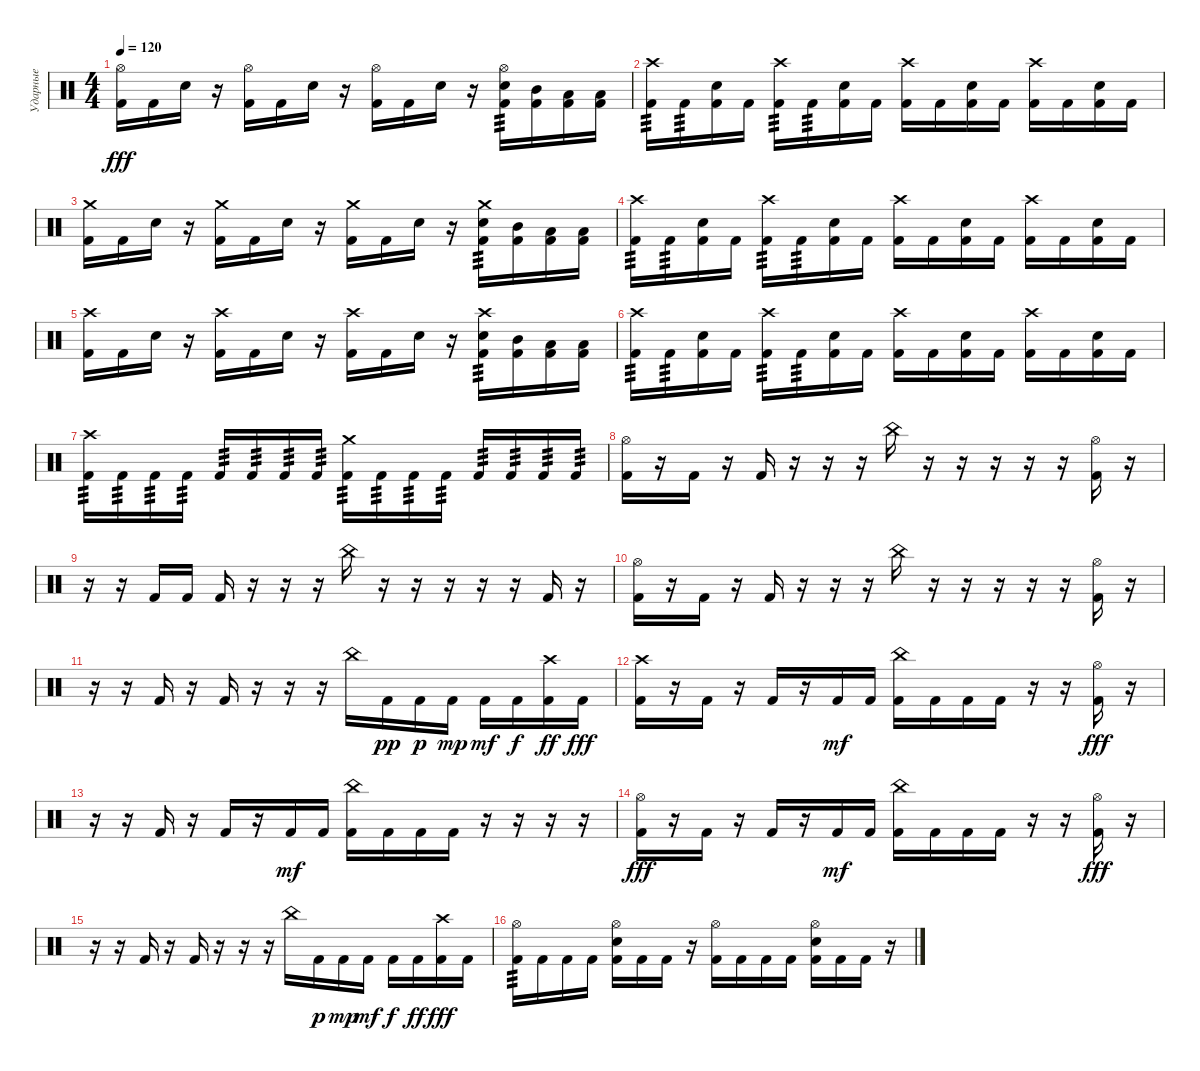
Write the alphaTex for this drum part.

\track ("Ударные" "Ударные") {instrument percussion}
\staff {score}
\articulation defaults
\ts (4 4)
\tempo 120
\clef neutral
\ks c
("Hi-Hat (open)" "Kick (hit) 2").16{dy fff} "Kick (hit) 2".16 "Snare (hit) 2".16 r.16 ("Hi-Hat (open)" "Kick (hit) 2").16 "Kick (hit) 2".16 "Snare (hit) 2".16 r.16 ("Hi-Hat (open)" "Kick (hit) 2").16 "Kick (hit) 2".16 "Snare (hit) 2".16 r.16 ("Hi-Hat (open)" "Snare (hit) 2" "Kick (hit) 2").16{tp 3} ("Mid Tom (hit)" "Kick (hit) 2").16 ("Low Tom (hit)" "Kick (hit) 2").16 ("Low Floor Tom (hit)" "Kick (hit) 2").16 |
("Crash high (hit)" "Kick (hit) 2").16{tp 3} "Kick (hit) 2".16{tp 3} ("Snare (hit) 2" "Kick (hit) 2").16 "Kick (hit) 2".16 ("Crash high (hit)" "Kick (hit) 2").16{tp 3} "Kick (hit) 2".16{tp 3} ("Snare (hit) 2" "Kick (hit) 2").16 "Kick (hit) 2".16 ("Crash high (hit)" "Kick (hit) 2").16 "Kick (hit) 2".16 ("Snare (hit) 2" "Kick (hit) 2").16 "Kick (hit) 2".16 ("Crash high (hit)" "Kick (hit) 2").16 "Kick (hit) 2".16 ("Snare (hit) 2" "Kick (hit) 2").16 "Kick (hit) 2".16 |
("Crash medium (hit)" "Kick (hit) 2").16 "Kick (hit) 2".16 "Snare (hit) 2".16 r.16 ("Crash medium (hit)" "Kick (hit) 2").16 "Kick (hit) 2".16 "Snare (hit) 2".16 r.16 ("Crash medium (hit)" "Kick (hit) 2").16 "Kick (hit) 2".16 "Snare (hit) 2".16 r.16 ("Crash medium (hit)" "Snare (hit) 2" "Kick (hit) 2").16{tp 3} ("Mid Tom (hit)" "Kick (hit) 2").16 ("Low Tom (hit)" "Kick (hit) 2").16 ("Low Floor Tom (hit)" "Kick (hit) 2").16 |
("Crash high (hit)" "Kick (hit) 2").16{tp 3} "Kick (hit) 2".16{tp 3} ("Snare (hit) 2" "Kick (hit) 2").16 "Kick (hit) 2".16 ("Crash high (hit)" "Kick (hit) 2").16{tp 3} "Kick (hit) 2".16{tp 3} ("Snare (hit) 2" "Kick (hit) 2").16 "Kick (hit) 2".16 ("Crash high (hit)" "Kick (hit) 2").16 "Kick (hit) 2".16 ("Snare (hit) 2" "Kick (hit) 2").16 "Kick (hit) 2".16 ("Crash high (hit)" "Kick (hit) 2").16 "Kick (hit) 2".16 ("Snare (hit) 2" "Kick (hit) 2").16 "Kick (hit) 2".16 |
("Crash high (hit)" "Kick (hit) 2").16 "Kick (hit) 2".16 "Snare (hit) 2".16 r.16 ("Crash high (hit)" "Kick (hit) 2").16 "Kick (hit) 2".16 "Snare (hit) 2".16 r.16 ("Crash high (hit)" "Kick (hit) 2").16 "Kick (hit) 2".16 "Snare (hit) 2".16 r.16 ("Crash high (hit)" "Snare (hit) 2" "Kick (hit) 2").16{tp 3} ("Mid Tom (hit)" "Kick (hit) 2").16 ("Low Tom (hit)" "Kick (hit) 2").16 ("Low Floor Tom (hit)" "Kick (hit) 2").16 |
("Crash high (hit)" "Kick (hit) 2").16{tp 3} "Kick (hit) 2".16{tp 3} ("Snare (hit) 2" "Kick (hit) 2").16 "Kick (hit) 2".16 ("Crash high (hit)" "Kick (hit) 2").16{tp 3} "Kick (hit) 2".16{tp 3} ("Snare (hit) 2" "Kick (hit) 2").16 "Kick (hit) 2".16 ("Crash high (hit)" "Kick (hit) 2").16 "Kick (hit) 2".16 ("Snare (hit) 2" "Kick (hit) 2").16 "Kick (hit) 2".16 ("Crash high (hit)" "Kick (hit) 2").16 "Kick (hit) 2".16 ("Snare (hit) 2" "Kick (hit) 2").16 "Kick (hit) 2".16 |
("Crash high (hit)" "Kick (hit) 2").16{tp 3} "Kick (hit) 2".16{tp 3} "Kick (hit) 2".16{tp 3} "Kick (hit) 2".16{tp 3} "Kick (hit) 2".16{tp 3} "Kick (hit) 2".16{tp 3} "Kick (hit) 2".16{tp 3} "Kick (hit) 2".16{tp 3} ("Crash medium (hit)" "Kick (hit) 2").16{tp 3} "Kick (hit) 2".16{tp 3} "Kick (hit) 2".16{tp 3} "Kick (hit) 2".16{tp 3} "Kick (hit) 2".16{tp 3} "Kick (hit) 2".16{tp 3} "Kick (hit) 2".16{tp 3} "Kick (hit) 2".16{tp 3} |
("Hi-Hat (open)" "Kick (hit) 2").16 r.16 "Kick (hit) 2".16 r.16 "Kick (hit) 2".16 r.16 r.16 r.16 "China (hit)".16 r.16 r.16 r.16 r.16 r.16 ("Hi-Hat (open)" "Kick (hit) 2").16 r.16 |
r.16 r.16 "Kick (hit) 2".16 "Kick (hit) 2".16 "Kick (hit) 2".16 r.16 r.16 r.16 "China (hit)".16 r.16 r.16 r.16 r.16 r.16 "Kick (hit) 2".16 r.16 |
("Hi-Hat (open)" "Kick (hit) 2").16 r.16 "Kick (hit) 2".16 r.16 "Kick (hit) 2".16 r.16 r.16 r.16 "China (hit)".16 r.16 r.16 r.16 r.16 r.16 ("Hi-Hat (open)" "Kick (hit) 2").16 r.16 |
r.16 r.16 "Kick (hit) 2".16 r.16 "Kick (hit) 2".16 r.16 r.16 r.16 "China (hit)".16 "Kick (hit) 2".16{dy pp} "Kick (hit) 2".16{dy p} "Kick (hit) 2".16{dy mp} "Kick (hit) 2".16{dy mf} "Kick (hit) 2".16{dy f} ("Crash high (hit)" "Kick (hit) 2").16{dy ff} "Kick (hit) 2".16{dy fff} |
("Crash high (hit)" "Kick (hit) 2").16 r.16 "Kick (hit) 2".16 r.16 "Kick (hit) 2".16 r.16 "Kick (hit) 2".16{dy mf} "Kick (hit) 2".16 ("China (hit)" "Kick (hit) 2").16 "Kick (hit) 2".16 "Kick (hit) 2".16 "Kick (hit) 2".16 r.16 r.16 ("Hi-Hat (open)" "Kick (hit) 2").16{dy fff} r.16 |
r.16 r.16 "Kick (hit) 2".16 r.16 "Kick (hit) 2".16 r.16 "Kick (hit) 2".16{dy mf} "Kick (hit) 2".16 ("China (hit)" "Kick (hit) 2").16 "Kick (hit) 2".16 "Kick (hit) 2".16 "Kick (hit) 2".16 r.16 r.16 r.16 r.16 |
("Hi-Hat (open)" "Kick (hit) 2").16{dy fff} r.16 "Kick (hit) 2".16 r.16 "Kick (hit) 2".16 r.16 "Kick (hit) 2".16{dy mf} "Kick (hit) 2".16 ("China (hit)" "Kick (hit) 2").16 "Kick (hit) 2".16 "Kick (hit) 2".16 "Kick (hit) 2".16 r.16 r.16 ("Hi-Hat (open)" "Kick (hit) 2").16{dy fff} r.16 |
r.16 r.16 "Kick (hit) 2".16 r.16 "Kick (hit) 2".16 r.16 r.16 r.16 "China (hit)".16 "Kick (hit) 2".16{dy p} "Kick (hit) 2".16{dy mp} "Kick (hit) 2".16{dy mf} "Kick (hit) 2".16{dy f} "Kick (hit) 2".16{dy ff} ("Crash high (hit)" "Kick (hit) 2").16{dy fff} "Kick (hit) 2".16 |
("Hi-Hat (open)" "Kick (hit) 2").16{tp 3} "Kick (hit) 2".16 "Kick (hit) 2".16 "Kick (hit) 2".16 ("Hi-Hat (open)" "Snare (hit) 2" "Kick (hit) 2").16 "Kick (hit) 2".16 "Kick (hit) 2".16 r.16 ("Hi-Hat (open)" "Kick (hit) 2").16 "Kick (hit) 2".16 "Kick (hit) 2".16 "Kick (hit) 2".16 ("Hi-Hat (open)" "Snare (hit) 2" "Kick (hit) 2").16 "Kick (hit) 2".16 "Kick (hit) 2".16 r.16
